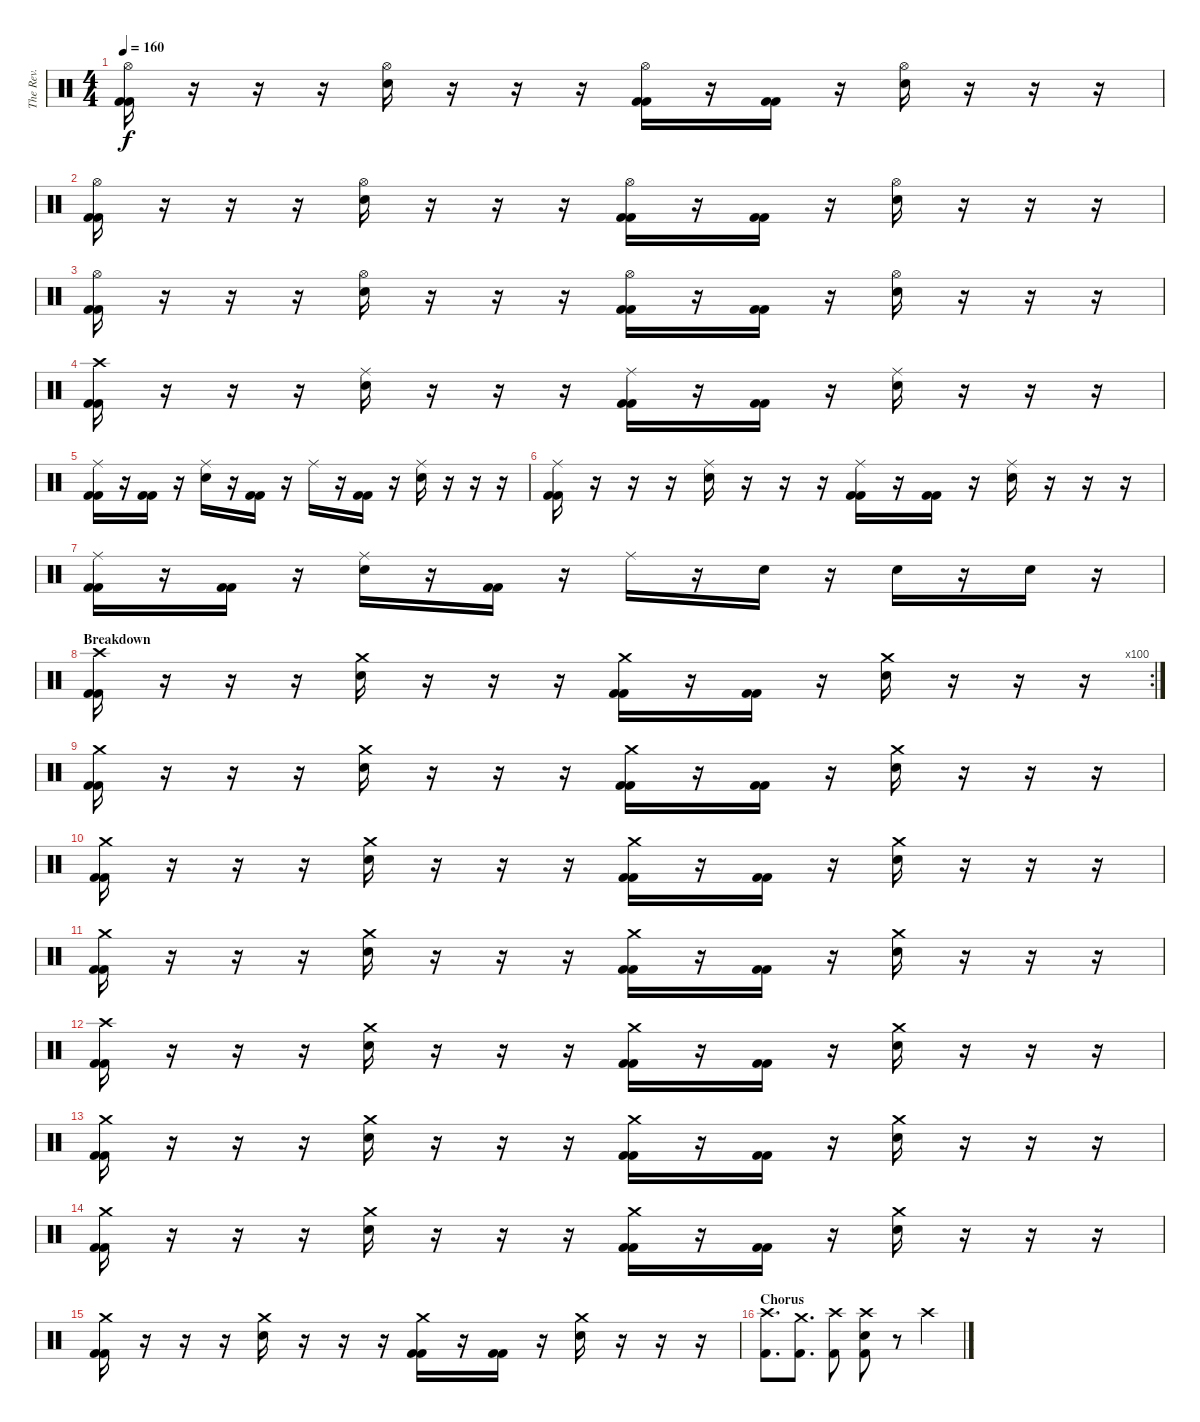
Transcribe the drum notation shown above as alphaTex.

\track ("The Rev." "The Rev.") {instrument percussion}
\staff {score}
\articulation defaults
\ts (4 4)
\tempo 160
\clef neutral
\ks c
("Hi-Hat (open)" "Kick (hit) 2" "Kick (hit) 2").16{dy f} r.16 r.16 r.16 ("Hi-Hat (open)" "Electric Snare (hit)").16 r.16 r.16 r.16 ("Hi-Hat (open)" "Kick (hit) 2" "Kick (hit) 2").16 r.16 ("Kick (hit) 2" "Kick (hit) 2").16 r.16 ("Hi-Hat (open)" "Electric Snare (hit)").16 r.16 r.16 r.16 |
("Hi-Hat (open)" "Kick (hit) 2" "Kick (hit) 2").16 r.16 r.16 r.16 ("Hi-Hat (open)" "Electric Snare (hit)").16 r.16 r.16 r.16 ("Hi-Hat (open)" "Kick (hit) 2" "Kick (hit) 2").16 r.16 ("Kick (hit) 2" "Kick (hit) 2").16 r.16 ("Hi-Hat (open)" "Electric Snare (hit)").16 r.16 r.16 r.16 |
("Hi-Hat (open)" "Kick (hit) 2" "Kick (hit) 2").16 r.16 r.16 r.16 ("Hi-Hat (open)" "Electric Snare (hit)").16 r.16 r.16 r.16 ("Hi-Hat (open)" "Kick (hit) 2" "Kick (hit) 2").16 r.16 ("Kick (hit) 2" "Kick (hit) 2").16 r.16 ("Hi-Hat (open)" "Electric Snare (hit)").16 r.16 r.16 r.16 |
("Crash high (hit)" "Kick (hit) 2" "Kick (hit) 2").16 r.16 r.16 r.16 ("Ride (middle)" "Electric Snare (hit)").16 r.16 r.16 r.16 ("Ride (middle)" "Kick (hit) 2" "Kick (hit) 2").16 r.16 ("Kick (hit) 2" "Kick (hit) 2").16 r.16 ("Ride (middle)" "Electric Snare (hit)").16 r.16 r.16 r.16 |
("Ride (middle)" "Kick (hit) 2" "Kick (hit) 2").16 r.16 ("Kick (hit) 2" "Kick (hit) 2").16 r.16 ("Ride (middle)" "Electric Snare (hit)").16 r.16 ("Kick (hit) 2" "Kick (hit) 2").16 r.16 "Ride (middle)".16 r.16 ("Kick (hit) 2" "Kick (hit) 2").16 r.16 ("Ride (middle)" "Electric Snare (hit)").16 r.16 r.16 r.16 |
("Ride (middle)" "Kick (hit) 2" "Kick (hit) 2").16 r.16 r.16 r.16 ("Ride (middle)" "Electric Snare (hit)").16 r.16 r.16 r.16 ("Ride (middle)" "Kick (hit) 2" "Kick (hit) 2").16 r.16 ("Kick (hit) 2" "Kick (hit) 2").16 r.16 ("Ride (middle)" "Electric Snare (hit)").16 r.16 r.16 r.16 |
("Ride (middle)" "Kick (hit) 2" "Kick (hit) 2").16 r.16 ("Kick (hit) 2" "Kick (hit) 2").16 r.16 ("Ride (middle)" "Electric Snare (hit)").16 r.16 ("Kick (hit) 2" "Kick (hit) 2").16 r.16 "Ride (middle)".16 r.16 "Electric Snare (hit)".16 r.16 "Electric Snare (hit)".16 r.16 "Electric Snare (hit)".16 r.16 |
\rc 100
\section ("" "Breakdown")
("Crash high (hit)" "Kick (hit) 2" "Kick (hit) 2").16 r.16 r.16 r.16 ("Crash medium (hit)" "Electric Snare (hit)").16 r.16 r.16 r.16 ("Crash medium (hit)" "Kick (hit) 2" "Kick (hit) 2").16 r.16 ("Kick (hit) 2" "Kick (hit) 2").16 r.16 ("Crash medium (hit)" "Electric Snare (hit)").16 r.16 r.16 r.16 |
("Crash medium (hit)" "Kick (hit) 2" "Kick (hit) 2").16 r.16 r.16 r.16 ("Crash medium (hit)" "Electric Snare (hit)").16 r.16 r.16 r.16 ("Crash medium (hit)" "Kick (hit) 2" "Kick (hit) 2").16 r.16 ("Kick (hit) 2" "Kick (hit) 2").16 r.16 ("Crash medium (hit)" "Electric Snare (hit)").16 r.16 r.16 r.16 |
("Crash medium (hit)" "Kick (hit) 2" "Kick (hit) 2").16 r.16 r.16 r.16 ("Crash medium (hit)" "Electric Snare (hit)").16 r.16 r.16 r.16 ("Crash medium (hit)" "Kick (hit) 2" "Kick (hit) 2").16 r.16 ("Kick (hit) 2" "Kick (hit) 2").16 r.16 ("Crash medium (hit)" "Electric Snare (hit)").16 r.16 r.16 r.16 |
("Crash medium (hit)" "Kick (hit) 2" "Kick (hit) 2").16 r.16 r.16 r.16 ("Crash medium (hit)" "Electric Snare (hit)").16 r.16 r.16 r.16 ("Crash medium (hit)" "Kick (hit) 2" "Kick (hit) 2").16 r.16 ("Kick (hit) 2" "Kick (hit) 2").16 r.16 ("Crash medium (hit)" "Electric Snare (hit)").16 r.16 r.16 r.16 |
("Crash high (hit)" "Kick (hit) 2" "Kick (hit) 2").16 r.16 r.16 r.16 ("Crash medium (hit)" "Electric Snare (hit)").16 r.16 r.16 r.16 ("Crash medium (hit)" "Kick (hit) 2" "Kick (hit) 2").16 r.16 ("Kick (hit) 2" "Kick (hit) 2").16 r.16 ("Crash medium (hit)" "Electric Snare (hit)").16 r.16 r.16 r.16 |
("Crash medium (hit)" "Kick (hit) 2" "Kick (hit) 2").16 r.16 r.16 r.16 ("Crash medium (hit)" "Electric Snare (hit)").16 r.16 r.16 r.16 ("Crash medium (hit)" "Kick (hit) 2" "Kick (hit) 2").16 r.16 ("Kick (hit) 2" "Kick (hit) 2").16 r.16 ("Crash medium (hit)" "Electric Snare (hit)").16 r.16 r.16 r.16 |
("Crash medium (hit)" "Kick (hit) 2" "Kick (hit) 2").16 r.16 r.16 r.16 ("Crash medium (hit)" "Electric Snare (hit)").16 r.16 r.16 r.16 ("Crash medium (hit)" "Kick (hit) 2" "Kick (hit) 2").16 r.16 ("Kick (hit) 2" "Kick (hit) 2").16 r.16 ("Crash medium (hit)" "Electric Snare (hit)").16 r.16 r.16 r.16 |
("Crash medium (hit)" "Kick (hit) 2" "Kick (hit) 2").16 r.16 r.16 r.16 ("Crash medium (hit)" "Electric Snare (hit)").16 r.16 r.16 r.16 ("Crash medium (hit)" "Kick (hit) 2" "Kick (hit) 2").16 r.16 ("Kick (hit) 2" "Kick (hit) 2").16 r.16 ("Crash medium (hit)" "Electric Snare (hit)").16 r.16 r.16 r.16 |
\section ("" "Chorus")
("Crash high (hit)" "Kick (hit) 2").8{d} ("Crash medium (hit)" "Kick (hit) 2").8{d} ("Crash high (hit)" "Kick (hit) 2").8 ("Crash high (hit)" "Electric Snare (hit)" "Kick (hit) 2").8 r.8 "Crash high (hit)".4
